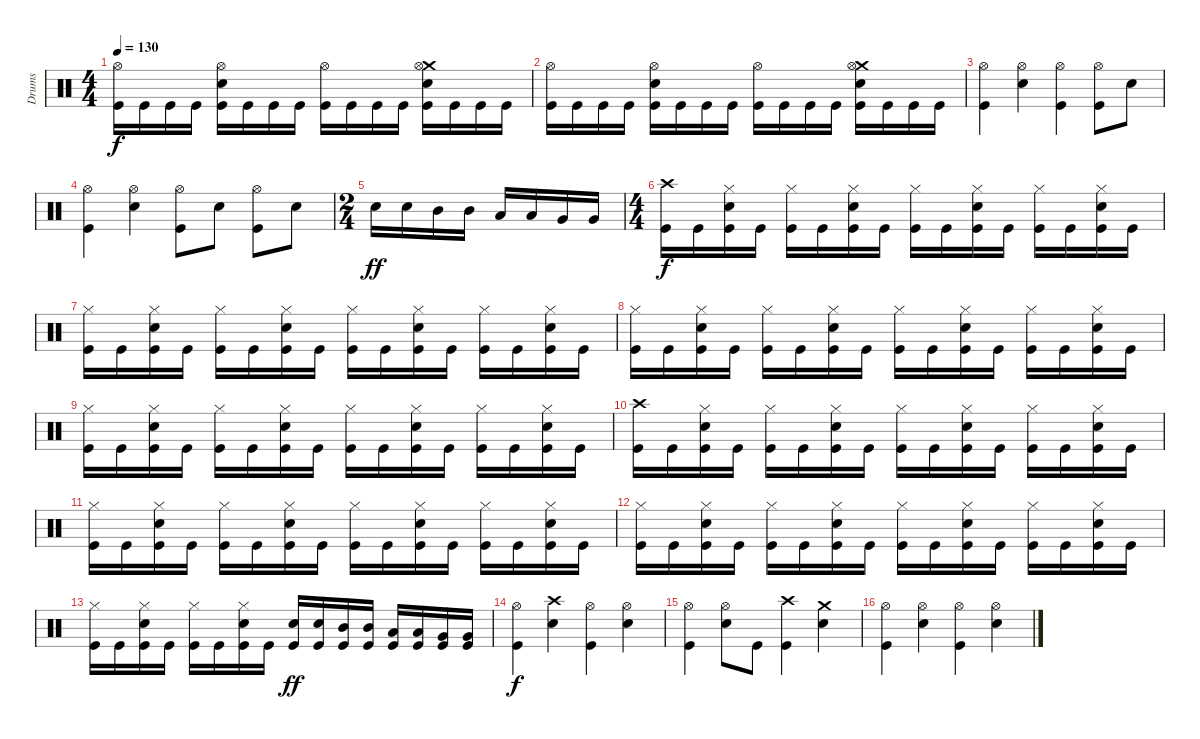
\track ("Drums" "Drums") {instrument percussion}
\staff {score}
\articulation defaults
\ts (4 4)
\tempo 130
\clef neutral
\ks c
("Hi-Hat (open)" "Kick (hit)").16{dy f} "Kick (hit)".16 "Kick (hit)".16 "Kick (hit)".16 ("Hi-Hat (open)" "Snare (hit) 2" "Kick (hit)").16 "Kick (hit)".16 "Kick (hit)".16 "Kick (hit)".16 ("Hi-Hat (open)" "Kick (hit)").16 "Kick (hit)".16 "Kick (hit)".16 "Kick (hit)".16 ("Crash medium (hit)" "Hi-Hat (open)" "Snare (hit) 2" "Kick (hit)").16 "Kick (hit)".16 "Kick (hit)".16 "Kick (hit)".16 |
("Hi-Hat (open)" "Kick (hit)").16 "Kick (hit)".16 "Kick (hit)".16 "Kick (hit)".16 ("Hi-Hat (open)" "Snare (hit) 2" "Kick (hit)").16 "Kick (hit)".16 "Kick (hit)".16 "Kick (hit)".16 ("Hi-Hat (open)" "Kick (hit)").16 "Kick (hit)".16 "Kick (hit)".16 "Kick (hit)".16 ("Crash medium (hit)" "Hi-Hat (open)" "Snare (hit) 2" "Kick (hit)").16 "Kick (hit)".16 "Kick (hit)".16 "Kick (hit)".16 |
("Hi-Hat (open)" "Kick (hit)").4 ("Hi-Hat (open)" "Snare (hit) 2").4 ("Hi-Hat (open)" "Kick (hit)").4 ("Hi-Hat (open)" "Kick (hit)").8 "Snare (hit) 2".8 |
("Hi-Hat (open)" "Kick (hit)").4 ("Hi-Hat (open)" "Snare (hit) 2").4 ("Hi-Hat (open)" "Kick (hit)").8 "Snare (hit) 2".8 ("Hi-Hat (open)" "Kick (hit)").8 "Snare (hit) 2".8 |
\ts (2 4)
"Snare (hit) 2".16{dy ff} "Snare (hit) 2".16 "Mid Tom (hit)".16 "Mid Tom (hit)".16 "Low Tom (hit)".16 "Low Tom (hit)".16 "Very Low Tom (hit)".16 "Very Low Tom (hit)".16 |
\ts (4 4)
("Crash high (hit)" "Kick (hit)").16{dy f} "Kick (hit)".16 ("Hi-Hat (closed)" "Snare (hit) 2" "Kick (hit)").16 "Kick (hit)".16 ("Hi-Hat (closed)" "Kick (hit)").16 "Kick (hit)".16 ("Hi-Hat (closed)" "Snare (hit) 2" "Kick (hit)").16 "Kick (hit)".16 ("Hi-Hat (closed)" "Kick (hit)").16 "Kick (hit)".16 ("Hi-Hat (closed)" "Snare (hit) 2" "Kick (hit)").16 "Kick (hit)".16 ("Hi-Hat (closed)" "Kick (hit)").16 "Kick (hit)".16 ("Hi-Hat (closed)" "Snare (hit) 2" "Kick (hit)").16 "Kick (hit)".16 |
("Hi-Hat (closed)" "Kick (hit)").16 "Kick (hit)".16 ("Hi-Hat (closed)" "Snare (hit) 2" "Kick (hit)").16 "Kick (hit)".16 ("Hi-Hat (closed)" "Kick (hit)").16 "Kick (hit)".16 ("Hi-Hat (closed)" "Snare (hit) 2" "Kick (hit)").16 "Kick (hit)".16 ("Hi-Hat (closed)" "Kick (hit)").16 "Kick (hit)".16 ("Hi-Hat (closed)" "Snare (hit) 2" "Kick (hit)").16 "Kick (hit)".16 ("Hi-Hat (closed)" "Kick (hit)").16 "Kick (hit)".16 ("Hi-Hat (closed)" "Snare (hit) 2" "Kick (hit)").16 "Kick (hit)".16 |
("Hi-Hat (closed)" "Kick (hit)").16 "Kick (hit)".16 ("Hi-Hat (closed)" "Snare (hit) 2" "Kick (hit)").16 "Kick (hit)".16 ("Hi-Hat (closed)" "Kick (hit)").16 "Kick (hit)".16 ("Hi-Hat (closed)" "Snare (hit) 2" "Kick (hit)").16 "Kick (hit)".16 ("Hi-Hat (closed)" "Kick (hit)").16 "Kick (hit)".16 ("Hi-Hat (closed)" "Snare (hit) 2" "Kick (hit)").16 "Kick (hit)".16 ("Hi-Hat (closed)" "Kick (hit)").16 "Kick (hit)".16 ("Hi-Hat (closed)" "Snare (hit) 2" "Kick (hit)").16 "Kick (hit)".16 |
("Hi-Hat (closed)" "Kick (hit)").16 "Kick (hit)".16 ("Hi-Hat (closed)" "Snare (hit) 2" "Kick (hit)").16 "Kick (hit)".16 ("Hi-Hat (closed)" "Kick (hit)").16 "Kick (hit)".16 ("Hi-Hat (closed)" "Snare (hit) 2" "Kick (hit)").16 "Kick (hit)".16 ("Hi-Hat (closed)" "Kick (hit)").16 "Kick (hit)".16 ("Hi-Hat (closed)" "Snare (hit) 2" "Kick (hit)").16 "Kick (hit)".16 ("Hi-Hat (closed)" "Kick (hit)").16 "Kick (hit)".16 ("Hi-Hat (closed)" "Snare (hit) 2" "Kick (hit)").16 "Kick (hit)".16 |
("Crash high (hit)" "Kick (hit)").16 "Kick (hit)".16 ("Hi-Hat (closed)" "Snare (hit) 2" "Kick (hit)").16 "Kick (hit)".16 ("Hi-Hat (closed)" "Kick (hit)").16 "Kick (hit)".16 ("Hi-Hat (closed)" "Snare (hit) 2" "Kick (hit)").16 "Kick (hit)".16 ("Hi-Hat (closed)" "Kick (hit)").16 "Kick (hit)".16 ("Hi-Hat (closed)" "Snare (hit) 2" "Kick (hit)").16 "Kick (hit)".16 ("Hi-Hat (closed)" "Kick (hit)").16 "Kick (hit)".16 ("Hi-Hat (closed)" "Snare (hit) 2" "Kick (hit)").16 "Kick (hit)".16 |
("Hi-Hat (closed)" "Kick (hit)").16 "Kick (hit)".16 ("Hi-Hat (closed)" "Snare (hit) 2" "Kick (hit)").16 "Kick (hit)".16 ("Hi-Hat (closed)" "Kick (hit)").16 "Kick (hit)".16 ("Hi-Hat (closed)" "Snare (hit) 2" "Kick (hit)").16 "Kick (hit)".16 ("Hi-Hat (closed)" "Kick (hit)").16 "Kick (hit)".16 ("Hi-Hat (closed)" "Snare (hit) 2" "Kick (hit)").16 "Kick (hit)".16 ("Hi-Hat (closed)" "Kick (hit)").16 "Kick (hit)".16 ("Hi-Hat (closed)" "Snare (hit) 2" "Kick (hit)").16 "Kick (hit)".16 |
("Hi-Hat (closed)" "Kick (hit)").16 "Kick (hit)".16 ("Hi-Hat (closed)" "Snare (hit) 2" "Kick (hit)").16 "Kick (hit)".16 ("Hi-Hat (closed)" "Kick (hit)").16 "Kick (hit)".16 ("Hi-Hat (closed)" "Snare (hit) 2" "Kick (hit)").16 "Kick (hit)".16 ("Hi-Hat (closed)" "Kick (hit)").16 "Kick (hit)".16 ("Hi-Hat (closed)" "Snare (hit) 2" "Kick (hit)").16 "Kick (hit)".16 ("Hi-Hat (closed)" "Kick (hit)").16 "Kick (hit)".16 ("Hi-Hat (closed)" "Snare (hit) 2" "Kick (hit)").16 "Kick (hit)".16 |
("Hi-Hat (closed)" "Kick (hit)").16 "Kick (hit)".16 ("Hi-Hat (closed)" "Snare (hit) 2" "Kick (hit)").16 "Kick (hit)".16 ("Hi-Hat (closed)" "Kick (hit)").16 "Kick (hit)".16 ("Hi-Hat (closed)" "Snare (hit) 2" "Kick (hit)").16 "Kick (hit)".16 ("Snare (hit) 2" "Kick (hit)").16{dy ff} ("Snare (hit) 2" "Kick (hit)").16 ("Mid Tom (hit)" "Kick (hit)").16 ("Mid Tom (hit)" "Kick (hit)").16 ("Low Tom (hit)" "Kick (hit)").16 ("Low Tom (hit)" "Kick (hit)").16 ("Very Low Tom (hit)" "Kick (hit)").16 ("Very Low Tom (hit)" "Kick (hit)").16 |
("Hi-Hat (open)" "Kick (hit)").4{dy f} ("Crash high (hit)" "Snare (hit) 2").4 ("Hi-Hat (open)" "Kick (hit)").4 ("Hi-Hat (open)" "Snare (hit) 2").4 |
("Hi-Hat (open)" "Kick (hit)").4 ("Hi-Hat (open)" "Snare (hit) 2").8 "Kick (hit)".8 ("Crash high (hit)" "Kick (hit)").4 ("Crash medium (hit)" "Snare (hit) 2").4 |
("Hi-Hat (open)" "Kick (hit)").4 ("Hi-Hat (open)" "Snare (hit) 2").4 ("Hi-Hat (open)" "Kick (hit)").4 ("Hi-Hat (open)" "Snare (hit) 2").4
